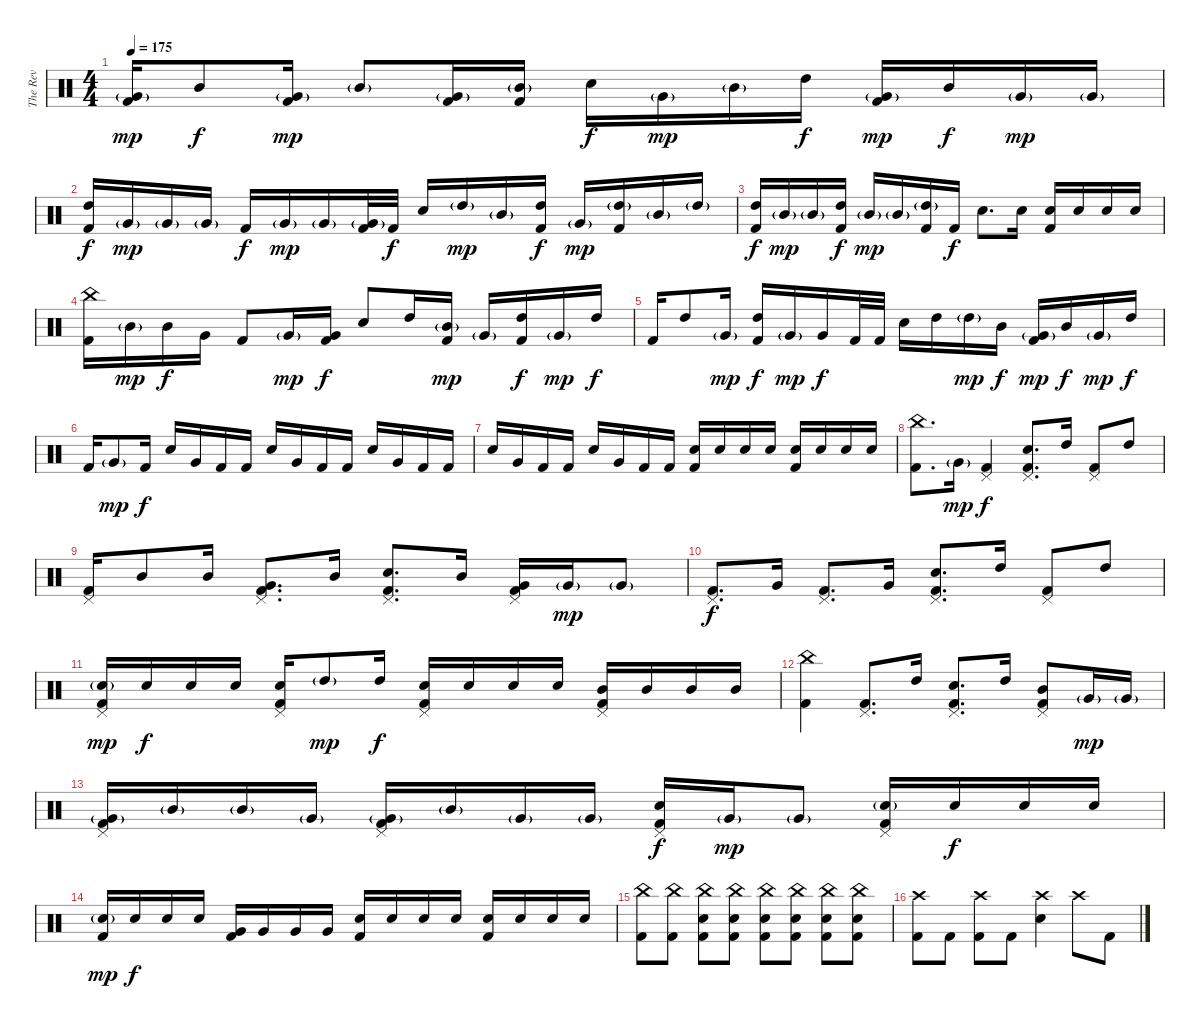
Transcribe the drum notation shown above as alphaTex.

\track ("The Rev" "The Rev") {instrument percussion}
\staff {score}
\articulation defaults
\ts (4 4)
\tempo 175
\clef neutral
\ks c
("Very Low Tom (hit)"{g} "Kick (hit) 2").16{dy mp} "Mid Tom (hit)".8{dy f} ("Very Low Tom (hit)"{g} "Kick (hit) 2").16{dy mp} "Mid Tom (hit)"{g}.8 ("Very Low Tom (hit)"{g} "Kick (hit) 2").16 ("Mid Tom (hit)"{g} "Kick (hit) 2").16 "Electric Snare (hit)".16{dy f} "Very Low Tom (hit)"{g}.16{dy mp} "Mid Tom (hit)"{g}.16 "High Tom (hit)".16{dy f} ("Very Low Tom (hit)"{g} "Kick (hit) 2").16{dy mp} "Mid Tom (hit)".16{dy f} "Very Low Tom (hit)"{g}.16{dy mp} "Very Low Tom (hit)"{g}.16 |
("High Tom (hit)" "Kick (hit) 2").16{dy f} "Very Low Tom (hit)"{g}.16{dy mp} "Very Low Tom (hit)"{g}.16 "Very Low Tom (hit)"{g}.16 "Kick (hit) 2".16{dy f} "Very Low Tom (hit)"{g}.16{dy mp} "Very Low Tom (hit)"{g}.16 ("Very Low Tom (hit)"{g} "Kick (hit) 2").32 "Kick (hit) 2".32{dy f} "Electric Snare (hit)".16 "High Tom (hit)"{g}.16{dy mp} "Mid Tom (hit)"{g}.16 ("High Tom (hit)" "Kick (hit) 2").16{dy f} "Very Low Tom (hit)"{g}.16{dy mp} ("High Tom (hit)"{g} "Kick (hit) 2").16 "Mid Tom (hit)"{g}.16 "High Tom (hit)"{g}.16 |
("High Tom (hit)" "Kick (hit) 2").16{dy f} "Mid Tom (hit)"{g}.16{dy mp} "Mid Tom (hit)"{g}.16 ("High Tom (hit)" "Kick (hit) 2").16{dy f} "Mid Tom (hit)"{g}.16{dy mp} "Mid Tom (hit)"{g}.16 ("High Tom (hit)"{g} "Kick (hit) 2").16 "Kick (hit) 2".16{dy f} "Electric Snare (hit)".8{d} "Electric Snare (hit)".16 ("Electric Snare (hit)" "Kick (hit) 2").16 "Electric Snare (hit)".16 "Electric Snare (hit)".16 "Electric Snare (hit)".16 |
("China (hit)" "Kick (hit) 2").16 "Mid Tom (hit)"{g}.16{dy mp} "Mid Tom (hit)".16{dy f} "Very Low Tom (hit)".16 "Kick (hit) 2".8 "Very Low Tom (hit)"{g}.16{dy mp} ("Very Low Tom (hit)" "Kick (hit) 2").16{dy f} "Electric Snare (hit)".8 "High Tom (hit)".16 ("Mid Tom (hit)"{g} "Kick (hit) 2").16{dy mp} "Very Low Tom (hit)"{g}.16 ("High Tom (hit)" "Kick (hit) 2").16{dy f} "Very Low Tom (hit)"{g}.16{dy mp} "High Tom (hit)".16{dy f} |
"Kick (hit) 2".16 "High Tom (hit)".8 "Very Low Tom (hit)"{g}.16{dy mp} ("High Tom (hit)" "Kick (hit) 2").16{dy f} "Very Low Tom (hit)"{g}.16{dy mp} "Very Low Tom (hit)".16{dy f} "Kick (hit) 2".32 "Kick (hit) 2".32 "Electric Snare (hit)".16 "High Tom (hit)".16 "High Tom (hit)"{g}.16{dy mp} "Mid Tom (hit)".16{dy f} ("Very Low Tom (hit)"{g} "Kick (hit) 2").16{dy mp} "Mid Tom (hit)".16{dy f} "Very Low Tom (hit)"{g}.16{dy mp} "High Tom (hit)".16{dy f} |
"Kick (hit) 2".16 "Very Low Tom (hit)"{g}.8{dy mp} "Kick (hit) 2".16{dy f} "Electric Snare (hit)".16 "Very Low Tom (hit)".16 "Kick (hit) 2".16 "Kick (hit) 2".16 "Electric Snare (hit)".16 "Very Low Tom (hit)".16 "Kick (hit) 2".16 "Kick (hit) 2".16 "Electric Snare (hit)".16 "Very Low Tom (hit)".16 "Kick (hit) 2".16 "Kick (hit) 2".16 |
"Electric Snare (hit)".16 "Very Low Tom (hit)".16 "Kick (hit) 2".16 "Kick (hit) 2".16 "Electric Snare (hit)".16 "Very Low Tom (hit)".16 "Kick (hit) 2".16 "Kick (hit) 2".16 ("Electric Snare (hit)" "Kick (hit) 2").16 "Electric Snare (hit)".16 "Electric Snare (hit)".16 "Electric Snare (hit)".16 ("Electric Snare (hit)" "Kick (hit) 2").16 "Electric Snare (hit)".16 "Electric Snare (hit)".16 "Electric Snare (hit)".16 |
("China (hit)" "Kick (hit) 2").8{d} "Very Low Tom (hit)"{g}.16{dy mp} ("Pedal Hi-Hat (hit)" "Kick (hit) 2").4{dy f} ("Pedal Hi-Hat (hit)" "Electric Snare (hit)" "Kick (hit) 2").8{d} "High Tom (hit)".16 ("Pedal Hi-Hat (hit)" "Kick (hit) 2").8 "High Tom (hit)".8 |
("Pedal Hi-Hat (hit)" "Kick (hit) 2").16 "Mid Tom (hit)".8 "Mid Tom (hit)".16 ("Pedal Hi-Hat (hit)" "Very Low Tom (hit)" "Kick (hit) 2").8{d} "Mid Tom (hit)".16 ("Pedal Hi-Hat (hit)" "Electric Snare (hit)" "Kick (hit) 2").8{d} "Mid Tom (hit)".16 ("Pedal Hi-Hat (hit)" "Very Low Tom (hit)" "Kick (hit) 2").16 "Very Low Tom (hit)"{g}.16{dy mp} "Very Low Tom (hit)"{g}.8 |
("Pedal Hi-Hat (hit)" "Kick (hit) 2").8{d dy f} "Very Low Tom (hit)".16 ("Pedal Hi-Hat (hit)" "Kick (hit) 2").8{d} "Very Low Tom (hit)".16 ("Pedal Hi-Hat (hit)" "Electric Snare (hit)" "Kick (hit) 2").8{d} "High Tom (hit)".16 ("Pedal Hi-Hat (hit)" "Kick (hit) 2").8 "High Tom (hit)".8 |
("Pedal Hi-Hat (hit)" "Electric Snare (hit)"{g} "Kick (hit) 2").16{dy mp} "Electric Snare (hit)".16{dy f} "Electric Snare (hit)".16 "Electric Snare (hit)".16 ("Pedal Hi-Hat (hit)" "Electric Snare (hit)" "Kick (hit) 2").16 "High Tom (hit)"{g}.8{dy mp} "High Tom (hit)".16{dy f} ("Pedal Hi-Hat (hit)" "Electric Snare (hit)" "Kick (hit) 2").16 "Electric Snare (hit)".16 "Electric Snare (hit)".16 "Electric Snare (hit)".16 ("Pedal Hi-Hat (hit)" "Mid Tom (hit)" "Kick (hit) 2").16 "Mid Tom (hit)".16 "Mid Tom (hit)".16 "Mid Tom (hit)".16 |
("China (hit)" "Kick (hit) 2").4 ("Pedal Hi-Hat (hit)" "Kick (hit) 2").8{d} "High Tom (hit)".16 ("Pedal Hi-Hat (hit)" "Electric Snare (hit)" "Kick (hit) 2").8{d} "High Tom (hit)".16 ("Pedal Hi-Hat (hit)" "Mid Tom (hit)" "Kick (hit) 2").8 "Very Low Tom (hit)"{g}.16{dy mp} "Very Low Tom (hit)"{g}.16 |
("Pedal Hi-Hat (hit)" "Very Low Tom (hit)"{g} "Kick (hit) 2").16 "Mid Tom (hit)"{g}.16 "Mid Tom (hit)"{g}.16 "Very Low Tom (hit)"{g}.16 ("Pedal Hi-Hat (hit)" "Very Low Tom (hit)"{g} "Kick (hit) 2").16 "Mid Tom (hit)"{g}.16 "Very Low Tom (hit)"{g}.16 "Very Low Tom (hit)"{g}.16 ("Pedal Hi-Hat (hit)" "Electric Snare (hit)" "Kick (hit) 2").16{dy f} "Very Low Tom (hit)"{g}.16{dy mp} "Very Low Tom (hit)"{g}.8 ("Pedal Hi-Hat (hit)" "Electric Snare (hit)"{g} "Kick (hit) 2").16 "Electric Snare (hit)".16{dy f} "Electric Snare (hit)".16 "Electric Snare (hit)".16 |
("Electric Snare (hit)"{g} "Kick (hit) 2").16{dy mp} "Electric Snare (hit)".16{dy f} "Electric Snare (hit)".16 "Electric Snare (hit)".16 ("Very Low Tom (hit)" "Kick (hit) 2").16 "Very Low Tom (hit)".16 "Very Low Tom (hit)".16 "Very Low Tom (hit)".16 ("Electric Snare (hit)" "Kick (hit) 2").16 "Electric Snare (hit)".16 "Electric Snare (hit)".16 "Electric Snare (hit)".16 ("Electric Snare (hit)" "Kick (hit) 2").16 "Electric Snare (hit)".16 "Electric Snare (hit)".16 "Electric Snare (hit)".16 |
("China (hit)" "Kick (hit) 2").8 ("China (hit)" "Kick (hit) 2").8 ("China (hit)" "Electric Snare (hit)" "Kick (hit) 2").8 ("China (hit)" "Electric Snare (hit)" "Kick (hit) 2").8 ("China (hit)" "Electric Snare (hit)" "Kick (hit) 2").8 ("China (hit)" "Electric Snare (hit)" "Kick (hit) 2").8 ("China (hit)" "Electric Snare (hit)" "Kick (hit) 2").8 ("China (hit)" "Electric Snare (hit)" "Kick (hit) 2").8 |
("Crash high (hit)" "Kick (hit) 2").8 "Kick (hit) 2".8 ("Crash high (hit)" "Kick (hit) 2").8 "Kick (hit) 2".8 ("Crash high (hit)" "Electric Snare (hit)").4 "Crash high (hit)".8 "Kick (hit) 2".8
